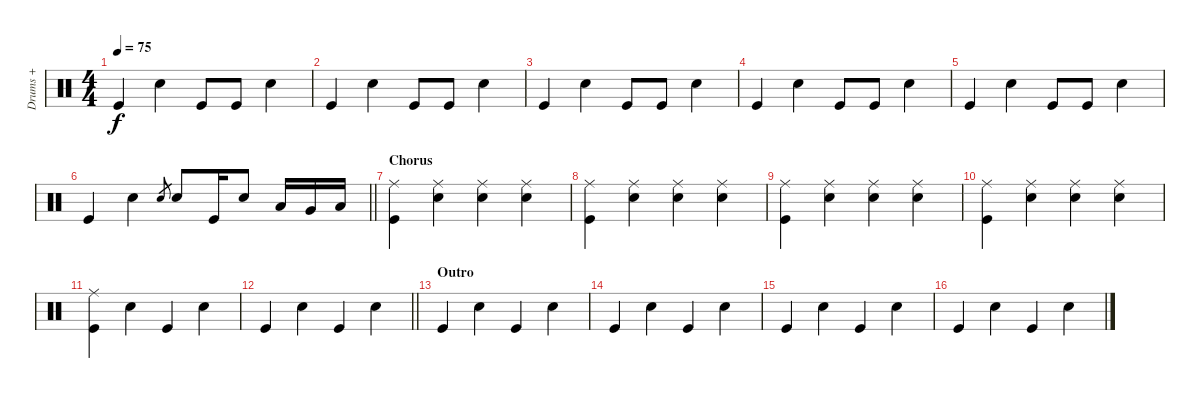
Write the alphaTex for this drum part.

\track ("Drums +" "Drums +") {instrument percussion}
\staff {score}
\articulation defaults
\ts (4 4)
\tempo 75
\clef neutral
\ks c "Kick (hit)".4{dy f} "Snare (hit) 2".4 "Kick (hit)".8 "Kick (hit)".8 "Snare (hit) 2".4
|
"Kick (hit)".4 "Snare (hit) 2".4 "Kick (hit)".8 "Kick (hit)".8 "Snare (hit) 2".4 |
"Kick (hit)".4 "Snare (hit) 2".4 "Kick (hit)".8 "Kick (hit)".8 "Snare (hit) 2".4 |
"Kick (hit)".4 "Snare (hit) 2".4 "Kick (hit)".8 "Kick (hit)".8 "Snare (hit) 2".4 |
"Kick (hit)".4 "Snare (hit) 2".4 "Kick (hit)".8 "Kick (hit)".8 "Snare (hit) 2".4 |
\barLineRight lightlight "Kick (hit)".4 "Snare (hit) 2".4 "Snare (hit) 2".8{gr} "Snare (hit) 2".8 "Kick (hit)".16 "Snare (hit) 2".8 "Low Tom (hit)".16 "Very Low Tom (hit)".16 "Low Floor Tom (hit)".16
|
\section ("" "Chorus")
("Ride (middle)" "Kick (hit)").4 ("Ride (middle)" "Snare (hit) 2").4 ("Ride (middle)" "Snare (hit) 2").4 ("Ride (middle)" "Snare (hit) 2").4 |
("Ride (middle)" "Kick (hit)").4 ("Ride (middle)" "Snare (hit) 2").4 ("Ride (middle)" "Snare (hit) 2").4 ("Ride (middle)" "Snare (hit) 2").4 |
("Ride (middle)" "Kick (hit)").4 ("Ride (middle)" "Snare (hit) 2").4 ("Ride (middle)" "Snare (hit) 2").4 ("Ride (middle)" "Snare (hit) 2").4 |
("Ride (middle)" "Kick (hit)").4 ("Ride (middle)" "Snare (hit) 2").4 ("Ride (middle)" "Snare (hit) 2").4 ("Ride (middle)" "Snare (hit) 2").4 |
("Ride (middle)" "Kick (hit)").4 "Snare (hit) 2".4 "Kick (hit)".4 "Snare (hit) 2".4 |
\barLineRight lightlight "Kick (hit)".4 "Snare (hit) 2".4 "Kick (hit)".4 "Snare (hit) 2".4
|
\section ("" "Outro")
"Kick (hit)".4 "Snare (hit) 2".4 "Kick (hit)".4 "Snare (hit) 2".4 |
"Kick (hit)".4 "Snare (hit) 2".4 "Kick (hit)".4 "Snare (hit) 2".4 |
"Kick (hit)".4{volume 0} "Snare (hit) 2".4 "Kick (hit)".4 "Snare (hit) 2".4 |
"Kick (hit)".4 "Snare (hit) 2".4 "Kick (hit)".4 "Snare (hit) 2".4
